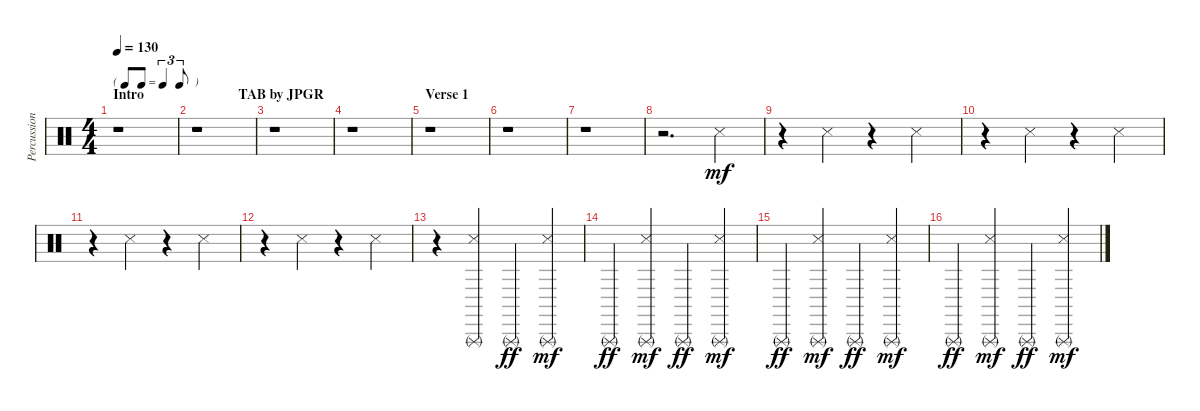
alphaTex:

\track ("Percussion" "Percussion") {instrument percussion}
\staff {score}
\articulation defaults
\ts (4 4)
\tf triplet8th
\section ("" "Intro                           TAB by JPGR")
\tempo 130
\clef neutral
\ks c
r.1{dy mf} |
r.1 |
r.1 |
r.1 |
\section ("" "Verse 1")
r.1 |
r.1 |
r.1 |
r.2{d} "Snare (side stick) 3".4 |
r.4 "Snare (side stick) 3".4 r.4 "Snare (side stick) 3".4 |
r.4 "Snare (side stick) 3".4 r.4 "Snare (side stick) 3".4 |
r.4 "Snare (side stick) 3".4 r.4 "Snare (side stick) 3".4 |
r.4 "Snare (side stick) 3".4 r.4 "Snare (side stick) 3".4 |
r.4 ("Triangle (rnute)" "Snare (side stick) 3").4 "Triangle (rnute)".4{dy ff} ("Triangle (rnute)" "Snare (side stick) 3").4{dy mf} |
"Triangle (rnute)".4{dy ff} ("Triangle (rnute)" "Snare (side stick) 3").4{dy mf} "Triangle (rnute)".4{dy ff} ("Triangle (rnute)" "Snare (side stick) 3").4{dy mf} |
"Triangle (rnute)".4{dy ff} ("Triangle (rnute)" "Snare (side stick) 3").4{dy mf} "Triangle (rnute)".4{dy ff} ("Triangle (rnute)" "Snare (side stick) 3").4{dy mf} |
"Triangle (rnute)".4{dy ff} ("Triangle (rnute)" "Snare (side stick) 3").4{dy mf} "Triangle (rnute)".4{dy ff} ("Triangle (rnute)" "Snare (side stick) 3").4{dy mf}
